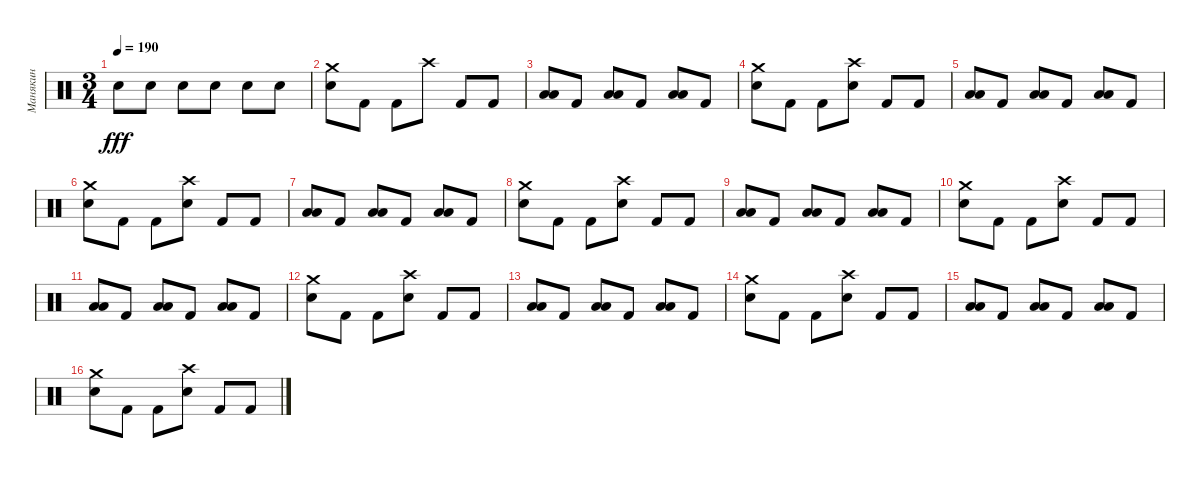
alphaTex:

\track ("Манякин" "Манякин") {instrument percussion}
\staff {score}
\articulation defaults
\ts (3 4)
\tempo 190
\clef neutral
\ks c "Snare (hit) 2".8{dy fff} "Snare (hit) 2".8 "Snare (hit) 2".8 "Snare (hit) 2".8 "Snare (hit) 2".8 "Snare (hit) 2".8
|
("Snare (hit) 2" "Crash medium (hit)").8 "Kick (hit) 2".8 "Kick (hit) 2".8 "Crash high (hit)".8 "Kick (hit) 2".8 "Kick (hit) 2".8 |
("Low Tom (hit)" "Low Floor Tom (hit)").8 "Kick (hit) 2".8 ("Low Floor Tom (hit)" "Low Tom (hit)").8 "Kick (hit) 2".8 ("Low Floor Tom (hit)" "Low Tom (hit)").8 "Kick (hit) 2".8 |
("Snare (hit) 2" "Crash medium (hit)").8 "Kick (hit) 2".8 "Kick (hit) 2".8 ("Crash high (hit)" "Snare (hit) 2").8 "Kick (hit) 2".8 "Kick (hit) 2".8 |
("Low Tom (hit)" "Low Floor Tom (hit)").8 "Kick (hit) 2".8 ("Low Floor Tom (hit)" "Low Tom (hit)").8 "Kick (hit) 2".8 ("Low Floor Tom (hit)" "Low Tom (hit)").8 "Kick (hit) 2".8 |
("Snare (hit) 2" "Crash medium (hit)").8 "Kick (hit) 2".8 "Kick (hit) 2".8 ("Crash high (hit)" "Snare (hit) 2").8 "Kick (hit) 2".8 "Kick (hit) 2".8 |
("Low Tom (hit)" "Low Floor Tom (hit)").8 "Kick (hit) 2".8 ("Low Floor Tom (hit)" "Low Tom (hit)").8 "Kick (hit) 2".8 ("Low Floor Tom (hit)" "Low Tom (hit)").8 "Kick (hit) 2".8 |
("Snare (hit) 2" "Crash medium (hit)").8 "Kick (hit) 2".8 "Kick (hit) 2".8 ("Crash high (hit)" "Snare (hit) 2").8 "Kick (hit) 2".8 "Kick (hit) 2".8 |
("Low Tom (hit)" "Low Floor Tom (hit)").8 "Kick (hit) 2".8 ("Low Floor Tom (hit)" "Low Tom (hit)").8 "Kick (hit) 2".8 ("Low Floor Tom (hit)" "Low Tom (hit)").8 "Kick (hit) 2".8 |
("Snare (hit) 2" "Crash medium (hit)").8 "Kick (hit) 2".8 "Kick (hit) 2".8 ("Crash high (hit)" "Snare (hit) 2").8 "Kick (hit) 2".8 "Kick (hit) 2".8 |
("Low Tom (hit)" "Low Floor Tom (hit)").8 "Kick (hit) 2".8 ("Low Floor Tom (hit)" "Low Tom (hit)").8 "Kick (hit) 2".8 ("Low Floor Tom (hit)" "Low Tom (hit)").8 "Kick (hit) 2".8 |
("Snare (hit) 2" "Crash medium (hit)").8 "Kick (hit) 2".8 "Kick (hit) 2".8 ("Crash high (hit)" "Snare (hit) 2").8 "Kick (hit) 2".8 "Kick (hit) 2".8 |
("Low Tom (hit)" "Low Floor Tom (hit)").8 "Kick (hit) 2".8 ("Low Floor Tom (hit)" "Low Tom (hit)").8 "Kick (hit) 2".8 ("Low Floor Tom (hit)" "Low Tom (hit)").8 "Kick (hit) 2".8 |
("Snare (hit) 2" "Crash medium (hit)").8 "Kick (hit) 2".8 "Kick (hit) 2".8 ("Crash high (hit)" "Snare (hit) 2").8 "Kick (hit) 2".8 "Kick (hit) 2".8 |
("Low Tom (hit)" "Low Floor Tom (hit)").8 "Kick (hit) 2".8 ("Low Floor Tom (hit)" "Low Tom (hit)").8 "Kick (hit) 2".8 ("Low Floor Tom (hit)" "Low Tom (hit)").8 "Kick (hit) 2".8 |
("Snare (hit) 2" "Crash medium (hit)").8 "Kick (hit) 2".8 "Kick (hit) 2".8 ("Crash high (hit)" "Snare (hit) 2").8 "Kick (hit) 2".8 "Kick (hit) 2".8
